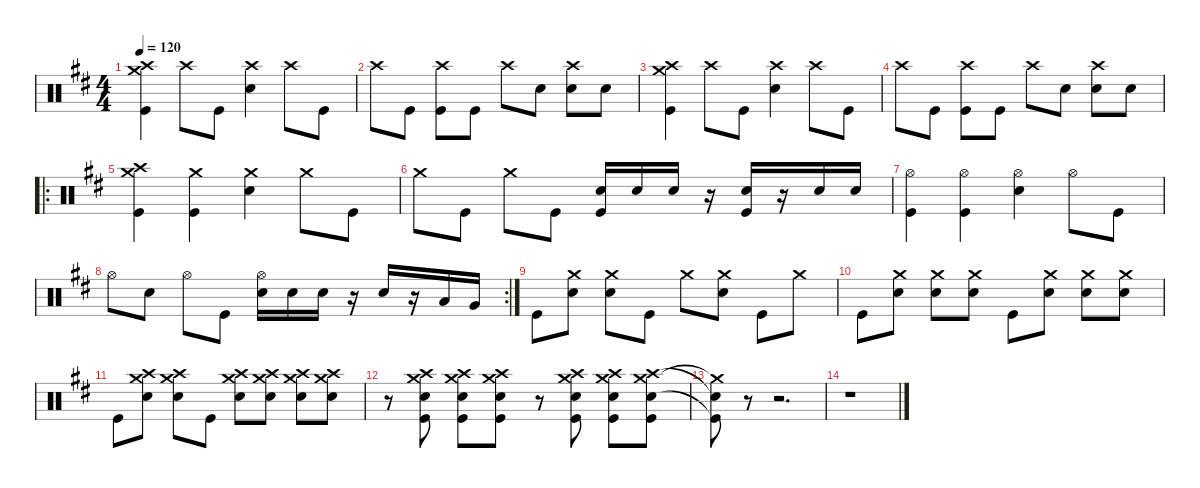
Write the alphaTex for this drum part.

\defaultSystemsLayout 4
\hideDynamics
\bracketExtendMode nobrackets
\singleTrackTrackNamePolicy hidden
\multiTrackTrackNamePolicy hidden
\firstSystemTrackNameMode fullname
\firstSystemTrackNameOrientation horizontal
\otherSystemsTrackNameOrientation horizontal
\track ("Aaron Harris" "drm.") {defaultSystemsLayout 4 instrument percussion}
\staff {score}
\articulation defaults
\ts (4 4)
\tempo 120
\clef neutral
\ks bminor
("Crash high (hit)"{acc forcenatural} "Crash medium (hit)"{acc forcenatural} "Kick (hit)"{acc forcenatural}).4{dy f beam Down} "Crash high (hit)"{acc forcenatural}.8{beam Down} "Kick (hit)"{acc forcenatural}.8{beam Down} ("Crash high (hit)"{acc forcenatural} "Snare (hit) 2"{acc forcenatural}).4{beam Down} "Crash high (hit)"{acc forcenatural}.8{beam Down} "Kick (hit)"{acc forcenatural}.8{beam Down} |
"Crash high (hit)"{acc forcenatural}.8{beam Down} "Kick (hit)"{acc forcenatural}.8{beam Down} ("Crash high (hit)"{acc forcenatural} "Kick (hit)"{acc forcenatural}).8{beam Down} "Kick (hit)"{acc forcenatural}.8{beam Down} "Crash high (hit)"{acc forcenatural}.8{beam Down} "Snare (hit) 2"{acc forcenatural}.8{beam Down} ("Crash high (hit)"{acc forcenatural} "Snare (hit) 2"{acc forcenatural}).8{beam Down} "Snare (hit) 2"{acc forcenatural}.8{beam Down} |
("Crash high (hit)"{acc forcenatural} "Crash medium (hit)"{acc forcenatural} "Kick (hit)"{acc forcenatural}).4{beam Down} "Crash high (hit)"{acc forcenatural}.8{beam Down} "Kick (hit)"{acc forcenatural}.8{beam Down} ("Crash high (hit)"{acc forcenatural} "Snare (hit) 2"{acc forcenatural}).4{beam Down} "Crash high (hit)"{acc forcenatural}.8{beam Down} "Kick (hit)"{acc forcenatural}.8{beam Down} |
"Crash high (hit)"{acc forcenatural}.8{beam Down} "Kick (hit)"{acc forcenatural}.8{beam Down} ("Crash high (hit)"{acc forcenatural} "Kick (hit)"{acc forcenatural}).8{beam Down} "Kick (hit)"{acc forcenatural}.8{beam Down} "Crash high (hit)"{acc forcenatural}.8{beam Down} "Snare (hit) 2"{acc forcenatural}.8{beam Down} ("Crash high (hit)"{acc forcenatural} "Snare (hit) 2"{acc forcenatural}).8{beam Down} "Snare (hit) 2"{acc forcenatural}.8{beam Down} |
\ro
("Crash medium (hit)"{acc forcenatural} "Crash high (hit)"{acc forcenatural} "Kick (hit)"{acc forcenatural}).4{beam Down} ("Crash medium (hit)"{acc forcenatural} "Kick (hit)"{acc forcenatural}).4{beam Down} ("Crash medium (hit)"{acc forcenatural} "Snare (hit) 2"{acc forcenatural}).4{beam Down} "Crash medium (hit)"{acc forcenatural}.8{beam Down} "Kick (hit)"{acc forcenatural}.8{beam Down} |
"Crash medium (hit)"{acc forcenatural}.8{beam Down} "Kick (hit)"{acc forcenatural}.8{beam Down} "Crash medium (hit)"{acc forcenatural}.8{beam Down} "Kick (hit)"{acc forcenatural}.8{beam Down} ("Snare (hit) 2"{acc forcenatural} "Kick (hit)"{acc forcenatural}).16{beam Up} "Snare (hit) 2"{acc forcenatural}.16{beam Up} "Snare (hit) 2"{acc forcenatural}.16{beam Up} r.16{beam Up} ("Snare (hit) 2"{acc forcenatural} "Kick (hit)"{acc forcenatural}).16{beam Up} r.16{beam Up} "Snare (hit) 2"{acc forcenatural}.16{beam Up} "Snare (hit) 2"{acc forcenatural}.16{beam Up} |
("Hi-Hat (open)"{acc forcenatural} "Kick (hit)"{acc forcenatural}).4{beam Down} ("Hi-Hat (open)"{acc forcenatural} "Kick (hit)"{acc forcenatural}).4{beam Down} ("Hi-Hat (open)"{acc forcenatural} "Snare (hit) 2"{acc forcenatural}).4{beam Down} "Hi-Hat (open)"{acc forcenatural}.8{beam Down} "Kick (hit)"{acc forcenatural}.8{beam Down} |
\rc 2 "Hi-Hat (open)"{acc forcenatural}.8{beam Down} "Snare (hit) 2"{acc forcenatural}.8{beam Down} "Hi-Hat (open)"{acc forcenatural}.8{beam Down} "Kick (hit)"{acc forcenatural}.8{beam Down}
("Hi-Hat (open)"{acc forcenatural} "Snare (hit) 2"{acc forcenatural}).16{beam Down} "Snare (hit) 2"{acc forcenatural}.16{beam Down} "Snare (hit) 2"{acc forcenatural}.16{beam Down} r.16{beam Down} "Snare (hit) 2"{acc forcenatural}.16{beam Up} r.16{beam Up} "Low Tom (hit)"{acc forcenatural}.16{beam Up} "Very Low Tom (hit)"{acc forcenatural}.16{beam Up} |
"Kick (hit)"{acc forcenatural}.8{beam Down} ("Crash medium (hit)"{acc forcenatural} "Snare (hit) 2"{acc forcenatural}).8{beam Down} ("Crash medium (hit)"{acc forcenatural} "Snare (hit) 2"{acc forcenatural}).8{beam Down} "Kick (hit)"{acc forcenatural}.8{beam Down} "Crash medium (hit)"{acc forcenatural}.8{beam Down} ("Crash medium (hit)"{acc forcenatural} "Snare (hit) 2"{acc forcenatural}).8{beam Down} "Kick (hit)"{acc forcenatural}.8{beam Down} "Crash medium (hit)"{acc forcenatural}.8{beam Down} |
"Kick (hit)"{acc forcenatural}.8{beam Down} ("Crash medium (hit)"{acc forcenatural} "Snare (hit) 2"{acc forcenatural}).8{beam Down} ("Crash medium (hit)"{acc forcenatural} "Snare (hit) 2"{acc forcenatural}).8{beam Down} ("Crash medium (hit)"{acc forcenatural} "Snare (hit) 2"{acc forcenatural}).8{beam Down} "Kick (hit)"{acc forcenatural}.8{beam Down} ("Crash medium (hit)"{acc forcenatural} "Snare (hit) 2"{acc forcenatural}).8{beam Down} ("Crash medium (hit)"{acc forcenatural} "Snare (hit) 2"{acc forcenatural}).8{beam Down} ("Crash medium (hit)"{acc forcenatural} "Snare (hit) 2"{acc forcenatural}).8{beam Down} |
"Kick (hit)"{acc forcenatural}.8{beam Down} ("Crash medium (hit)"{acc forcenatural} "Crash high (hit)"{acc forcenatural} "Snare (hit) 2"{acc forcenatural}).8{beam Down} ("Crash medium (hit)"{acc forcenatural} "Crash high (hit)"{acc forcenatural} "Snare (hit) 2"{acc forcenatural}).8{beam Down} "Kick (hit)"{acc forcenatural}.8{beam Down} ("Crash medium (hit)"{acc forcenatural} "Crash high (hit)"{acc forcenatural} "Snare (hit) 2"{acc forcenatural}).8{beam Down} ("Crash medium (hit)"{acc forcenatural} "Crash high (hit)"{acc forcenatural} "Snare (hit) 2"{acc forcenatural}).8{beam Down} ("Crash medium (hit)"{acc forcenatural} "Crash high (hit)"{acc forcenatural} "Snare (hit) 2"{acc forcenatural}).8{beam Down} ("Crash medium (hit)"{acc forcenatural} "Crash high (hit)"{acc forcenatural} "Snare (hit) 2"{acc forcenatural}).8{beam Down} |
r.8{beam Down} ("Crash medium (hit)"{acc forcenatural} "Crash high (hit)"{acc forcenatural} "Snare (hit) 2"{acc forcenatural} "Kick (hit)"{acc forcenatural}).8{beam Down} ("Crash medium (hit)"{acc forcenatural} "Crash high (hit)"{acc forcenatural} "Snare (hit) 2"{acc forcenatural} "Kick (hit)"{acc forcenatural}).8{beam Down} ("Crash medium (hit)"{acc forcenatural} "Crash high (hit)"{acc forcenatural} "Snare (hit) 2"{acc forcenatural} "Kick (hit)"{acc forcenatural}).8{beam Down} r.8{beam Down} ("Crash medium (hit)"{acc forcenatural} "Crash high (hit)"{acc forcenatural} "Snare (hit) 2"{acc forcenatural} "Kick (hit)"{acc forcenatural}).8{beam Down} ("Crash medium (hit)"{acc forcenatural} "Crash high (hit)"{acc forcenatural} "Snare (hit) 2"{acc forcenatural} "Kick (hit)"{acc forcenatural}).8{beam Down} ("Crash medium (hit)"{acc forcenatural} "Crash high (hit)"{acc forcenatural} "Snare (hit) 2"{acc forcenatural} "Kick (hit)"{acc forcenatural}).8{beam Down} |
("Crash medium (hit)"{t acc forcenatural} "Snare (hit) 2"{t acc forcenatural} "Kick (hit)"{t acc forcenatural}).8{beam Down} r.8{beam Down} r.2{d beam Down} |
r.1{beam Down}
